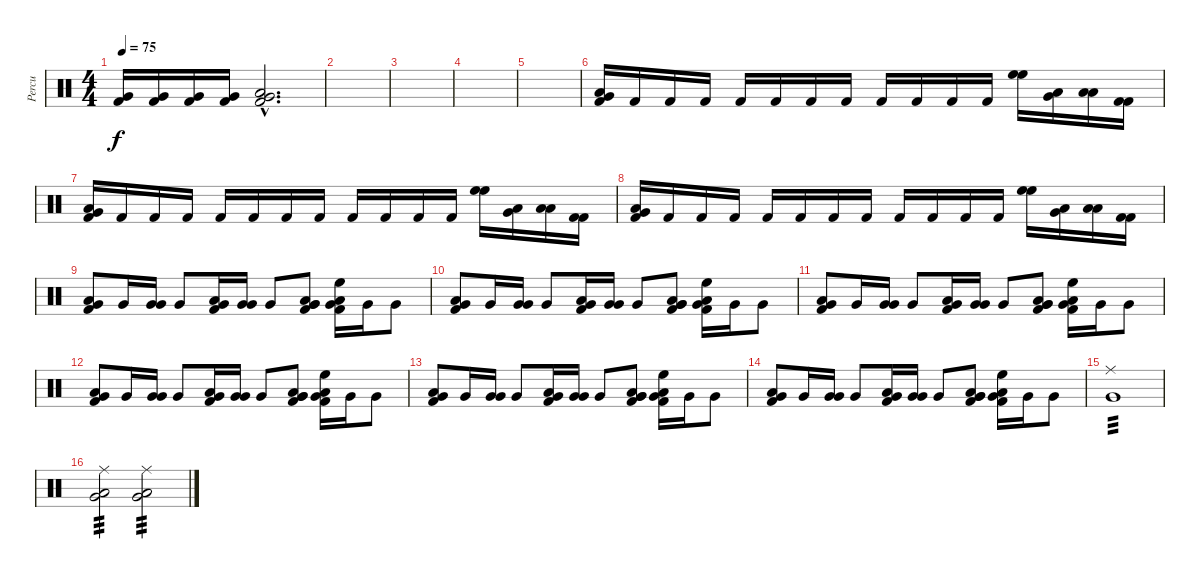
\track ("Percu" "Percu") {instrument percussion}
\staff {score}
\articulation defaults
\ts (4 4)
\tempo 75
\clef neutral
\ks c
("Kick (hit) 2" "Very Low Tom (hit)").16{dy f} ("Kick (hit) 2" "Very Low Tom (hit)").16 ("Kick (hit) 2" "Very Low Tom (hit)").16 ("Kick (hit) 2" "Very Low Tom (hit)").16 ("Very Low Tom (hit)"{hac} "Low Floor Tom (hit)"{hac} "Kick (hit) 2"{hac}).2{d} |
|
|
|
|
("Low Floor Tom (hit)" "Very Low Tom (hit)" "Kick (hit) 2").16 "Kick (hit) 2".16 "Kick (hit) 2".16 "Kick (hit) 2".16 "Kick (hit) 2".16 "Kick (hit) 2".16 "Kick (hit) 2".16 "Kick (hit) 2".16 "Kick (hit) 2".16 "Kick (hit) 2".16 "Kick (hit) 2".16 "Kick (hit) 2".16 ("High Floor Tom (hit)" "High Floor Tom (hit)").16 ("Very Low Tom (hit)" "Low Floor Tom (hit)").16 ("Low Floor Tom (hit)" "Low Floor Tom (hit)").16 ("Kick (hit) 2" "Kick (hit) 2").16 |
("Low Floor Tom (hit)" "Very Low Tom (hit)" "Kick (hit) 2").16 "Kick (hit) 2".16 "Kick (hit) 2".16 "Kick (hit) 2".16 "Kick (hit) 2".16 "Kick (hit) 2".16 "Kick (hit) 2".16 "Kick (hit) 2".16 "Kick (hit) 2".16 "Kick (hit) 2".16 "Kick (hit) 2".16 "Kick (hit) 2".16 ("High Floor Tom (hit)" "High Floor Tom (hit)").16 ("Very Low Tom (hit)" "Low Floor Tom (hit)").16 ("Low Floor Tom (hit)" "Low Floor Tom (hit)").16 ("Kick (hit) 2" "Kick (hit) 2").16 |
("Low Floor Tom (hit)" "Very Low Tom (hit)" "Kick (hit) 2").16 "Kick (hit) 2".16 "Kick (hit) 2".16 "Kick (hit) 2".16 "Kick (hit) 2".16 "Kick (hit) 2".16 "Kick (hit) 2".16 "Kick (hit) 2".16 "Kick (hit) 2".16 "Kick (hit) 2".16 "Kick (hit) 2".16 "Kick (hit) 2".16 ("High Floor Tom (hit)" "High Floor Tom (hit)").16 ("Very Low Tom (hit)" "Low Floor Tom (hit)").16 ("Low Floor Tom (hit)" "Low Floor Tom (hit)").16 ("Kick (hit) 2" "Kick (hit) 2").16 |
("Low Floor Tom (hit)" "Very Low Tom (hit)" "Kick (hit) 2").8 "Very Low Tom (hit)".16 ("Very Low Tom (hit)" "Very Low Tom (hit)").16 "Very Low Tom (hit)".8 ("Low Floor Tom (hit)" "Very Low Tom (hit)" "Kick (hit) 2").16 ("Very Low Tom (hit)" "Very Low Tom (hit)").16 "Very Low Tom (hit)".8 ("Very Low Tom (hit)" "Low Floor Tom (hit)" "Very Low Tom (hit)" "Kick (hit) 2").8 ("Low Floor Tom (hit)" "Very Low Tom (hit)" "Kick (hit) 2" "High Floor Tom (hit)").16 "Very Low Tom (hit)".16 "Very Low Tom (hit)".8 |
("Low Floor Tom (hit)" "Very Low Tom (hit)" "Kick (hit) 2").8 "Very Low Tom (hit)".16 ("Very Low Tom (hit)" "Very Low Tom (hit)").16 "Very Low Tom (hit)".8 ("Low Floor Tom (hit)" "Very Low Tom (hit)" "Kick (hit) 2").16 ("Very Low Tom (hit)" "Very Low Tom (hit)").16 "Very Low Tom (hit)".8 ("Very Low Tom (hit)" "Low Floor Tom (hit)" "Very Low Tom (hit)" "Kick (hit) 2").8 ("Low Floor Tom (hit)" "Very Low Tom (hit)" "Kick (hit) 2" "High Floor Tom (hit)").16 "Very Low Tom (hit)".16 "Very Low Tom (hit)".8 |
("Low Floor Tom (hit)" "Very Low Tom (hit)" "Kick (hit) 2").8 "Very Low Tom (hit)".16 ("Very Low Tom (hit)" "Very Low Tom (hit)").16 "Very Low Tom (hit)".8 ("Low Floor Tom (hit)" "Very Low Tom (hit)" "Kick (hit) 2").16 ("Very Low Tom (hit)" "Very Low Tom (hit)").16 "Very Low Tom (hit)".8 ("Very Low Tom (hit)" "Low Floor Tom (hit)" "Very Low Tom (hit)" "Kick (hit) 2").8 ("Low Floor Tom (hit)" "Very Low Tom (hit)" "Kick (hit) 2" "High Floor Tom (hit)").16 "Very Low Tom (hit)".16 "Very Low Tom (hit)".8 |
("Low Floor Tom (hit)" "Very Low Tom (hit)" "Kick (hit) 2").8 "Very Low Tom (hit)".16 ("Very Low Tom (hit)" "Very Low Tom (hit)").16 "Very Low Tom (hit)".8 ("Low Floor Tom (hit)" "Very Low Tom (hit)" "Kick (hit) 2").16 ("Very Low Tom (hit)" "Very Low Tom (hit)").16 "Very Low Tom (hit)".8 ("Very Low Tom (hit)" "Low Floor Tom (hit)" "Very Low Tom (hit)" "Kick (hit) 2").8 ("Low Floor Tom (hit)" "Very Low Tom (hit)" "Kick (hit) 2" "High Floor Tom (hit)").16 "Very Low Tom (hit)".16 "Very Low Tom (hit)".8 |
("Low Floor Tom (hit)" "Very Low Tom (hit)" "Kick (hit) 2").8 "Very Low Tom (hit)".16 ("Very Low Tom (hit)" "Very Low Tom (hit)").16 "Very Low Tom (hit)".8 ("Low Floor Tom (hit)" "Very Low Tom (hit)" "Kick (hit) 2").16 ("Very Low Tom (hit)" "Very Low Tom (hit)").16 "Very Low Tom (hit)".8 ("Very Low Tom (hit)" "Low Floor Tom (hit)" "Very Low Tom (hit)" "Kick (hit) 2").8 ("Low Floor Tom (hit)" "Very Low Tom (hit)" "Kick (hit) 2" "High Floor Tom (hit)").16 "Very Low Tom (hit)".16 "Very Low Tom (hit)".8 |
("Low Floor Tom (hit)" "Very Low Tom (hit)" "Kick (hit) 2").8 "Very Low Tom (hit)".16 ("Very Low Tom (hit)" "Very Low Tom (hit)").16 "Very Low Tom (hit)".8 ("Low Floor Tom (hit)" "Very Low Tom (hit)" "Kick (hit) 2").16 ("Very Low Tom (hit)" "Very Low Tom (hit)").16 "Very Low Tom (hit)".8 ("Very Low Tom (hit)" "Low Floor Tom (hit)" "Very Low Tom (hit)" "Kick (hit) 2").8 ("Low Floor Tom (hit)" "Very Low Tom (hit)" "Kick (hit) 2" "High Floor Tom (hit)").16 "Very Low Tom (hit)".16 "Very Low Tom (hit)".8 |
("Ride (middle)" "Very Low Tom (hit)").1{tp 3} |
("Low Floor Tom (hit)" "Ride (middle)" "Very Low Tom (hit)").2{tp 3} ("Low Floor Tom (hit)" "Ride (middle)" "Very Low Tom (hit)").2{tp 3}
